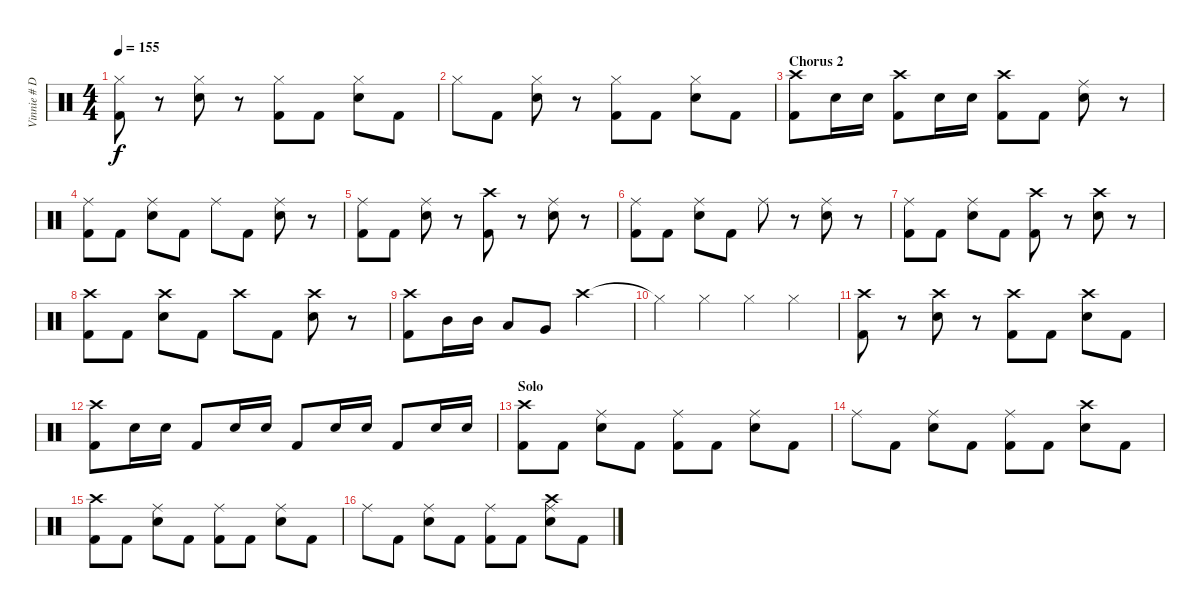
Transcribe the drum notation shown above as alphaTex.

\track ("Vinnie # Drums" "Vinnie # D") {instrument percussion}
\staff {score}
\articulation defaults
\ts (4 4)
\tempo 155
\clef neutral
\ks c
("Hi-Hat (closed)" "Kick (hit) 2").8{dy f} r.8 ("Hi-Hat (closed)" "Electric Snare (hit)").8 r.8 ("Hi-Hat (closed)" "Kick (hit) 2").8 "Kick (hit) 2".8 ("Hi-Hat (closed)" "Electric Snare (hit)").8 "Kick (hit) 2".8 |
"Hi-Hat (closed)".8 "Kick (hit) 2".8 ("Hi-Hat (closed)" "Electric Snare (hit)").8 r.8 ("Hi-Hat (closed)" "Kick (hit) 2").8 "Kick (hit) 2".8 ("Hi-Hat (closed)" "Electric Snare (hit)").8 "Kick (hit) 2".8 |
\section ("" "Chorus 2")
("Crash high (hit)" "Kick (hit) 2").8 "Electric Snare (hit)".16 "Electric Snare (hit)".16 ("Crash high (hit)" "Kick (hit) 2").8 "Electric Snare (hit)".16 "Electric Snare (hit)".16 ("Crash high (hit)" "Kick (hit) 2").8 "Kick (hit) 2".8 ("Ride (middle)" "Electric Snare (hit)").8 r.8 |
("Ride (middle)" "Kick (hit) 2").8 "Kick (hit) 2".8 ("Ride (middle)" "Electric Snare (hit)").8 "Kick (hit) 2".8 "Ride (middle)".8 "Kick (hit) 2".8 ("Ride (middle)" "Electric Snare (hit)").8 r.8 |
("Ride (middle)" "Kick (hit) 2").8 "Kick (hit) 2".8 ("Ride (middle)" "Electric Snare (hit)").8 r.8 ("Crash high (hit)" "Kick (hit) 2").8 r.8 ("Ride (middle)" "Electric Snare (hit)").8 r.8 |
("Ride (middle)" "Kick (hit) 2").8 "Kick (hit) 2".8 ("Ride (middle)" "Electric Snare (hit)").8 "Kick (hit) 2".8 "Ride (middle)".8 r.8 ("Ride (middle)" "Electric Snare (hit)").8 r.8 |
("Ride (middle)" "Kick (hit) 2").8 "Kick (hit) 2".8 ("Ride (middle)" "Electric Snare (hit)").8 "Kick (hit) 2".8 ("Crash high (hit)" "Kick (hit) 2").8 r.8 ("Crash high (hit)" "Electric Snare (hit)").8 r.8 |
("Crash high (hit)" "Kick (hit) 2").8 "Kick (hit) 2".8 ("Crash high (hit)" "Electric Snare (hit)").8 "Kick (hit) 2".8 "Crash high (hit)".8 "Kick (hit) 2".8 ("Crash high (hit)" "Electric Snare (hit)").8 r.8 |
("Crash high (hit)" "Kick (hit) 2").8 "Mid Tom (hit)".16 "Mid Tom (hit)".16 "Low Tom (hit)".8 "Very Low Tom (hit)".8 "Crash high (hit)".2 |
"Hi-Hat (closed)"{t}.4 "Hi-Hat (closed)".4 "Hi-Hat (closed)".4 "Hi-Hat (closed)".4 |
("Crash high (hit)" "Kick (hit) 2").8 r.8 ("Crash high (hit)" "Electric Snare (hit)").8 r.8 ("Crash high (hit)" "Kick (hit) 2").8 "Kick (hit) 2".8 ("Crash high (hit)" "Electric Snare (hit)").8 "Kick (hit) 2".8 |
("Crash high (hit)" "Kick (hit) 2").8 "Electric Snare (hit)".16 "Electric Snare (hit)".16 "Kick (hit) 2".8 "Electric Snare (hit)".16 "Electric Snare (hit)".16 "Kick (hit) 2".8 "Electric Snare (hit)".16 "Electric Snare (hit)".16 "Kick (hit) 2".8 "Electric Snare (hit)".16 "Electric Snare (hit)".16 |
\section ("" "Solo")
("Crash high (hit)" "Kick (hit) 2").8 "Kick (hit) 2".8 ("Ride (middle)" "Electric Snare (hit)").8 "Kick (hit) 2".8 ("Ride (middle)" "Kick (hit) 2").8 "Kick (hit) 2".8 ("Ride (middle)" "Electric Snare (hit)").8 "Kick (hit) 2".8 |
"Ride (middle)".8 "Kick (hit) 2".8 ("Ride (middle)" "Electric Snare (hit)").8 "Kick (hit) 2".8 ("Ride (middle)" "Kick (hit) 2").8 "Kick (hit) 2".8 ("Crash high (hit)" "Electric Snare (hit)").8 "Kick (hit) 2".8 |
("Crash high (hit)" "Kick (hit) 2").8 "Kick (hit) 2".8 ("Ride (middle)" "Electric Snare (hit)").8 "Kick (hit) 2".8 ("Ride (middle)" "Kick (hit) 2").8 "Kick (hit) 2".8 ("Ride (middle)" "Electric Snare (hit)").8 "Kick (hit) 2".8 |
"Ride (middle)".8 "Kick (hit) 2".8 ("Ride (middle)" "Electric Snare (hit)").8 "Kick (hit) 2".8 ("Ride (middle)" "Kick (hit) 2").8 "Kick (hit) 2".8 ("Crash high (hit)" "Ride (middle)" "Electric Snare (hit)").8 "Kick (hit) 2".8
